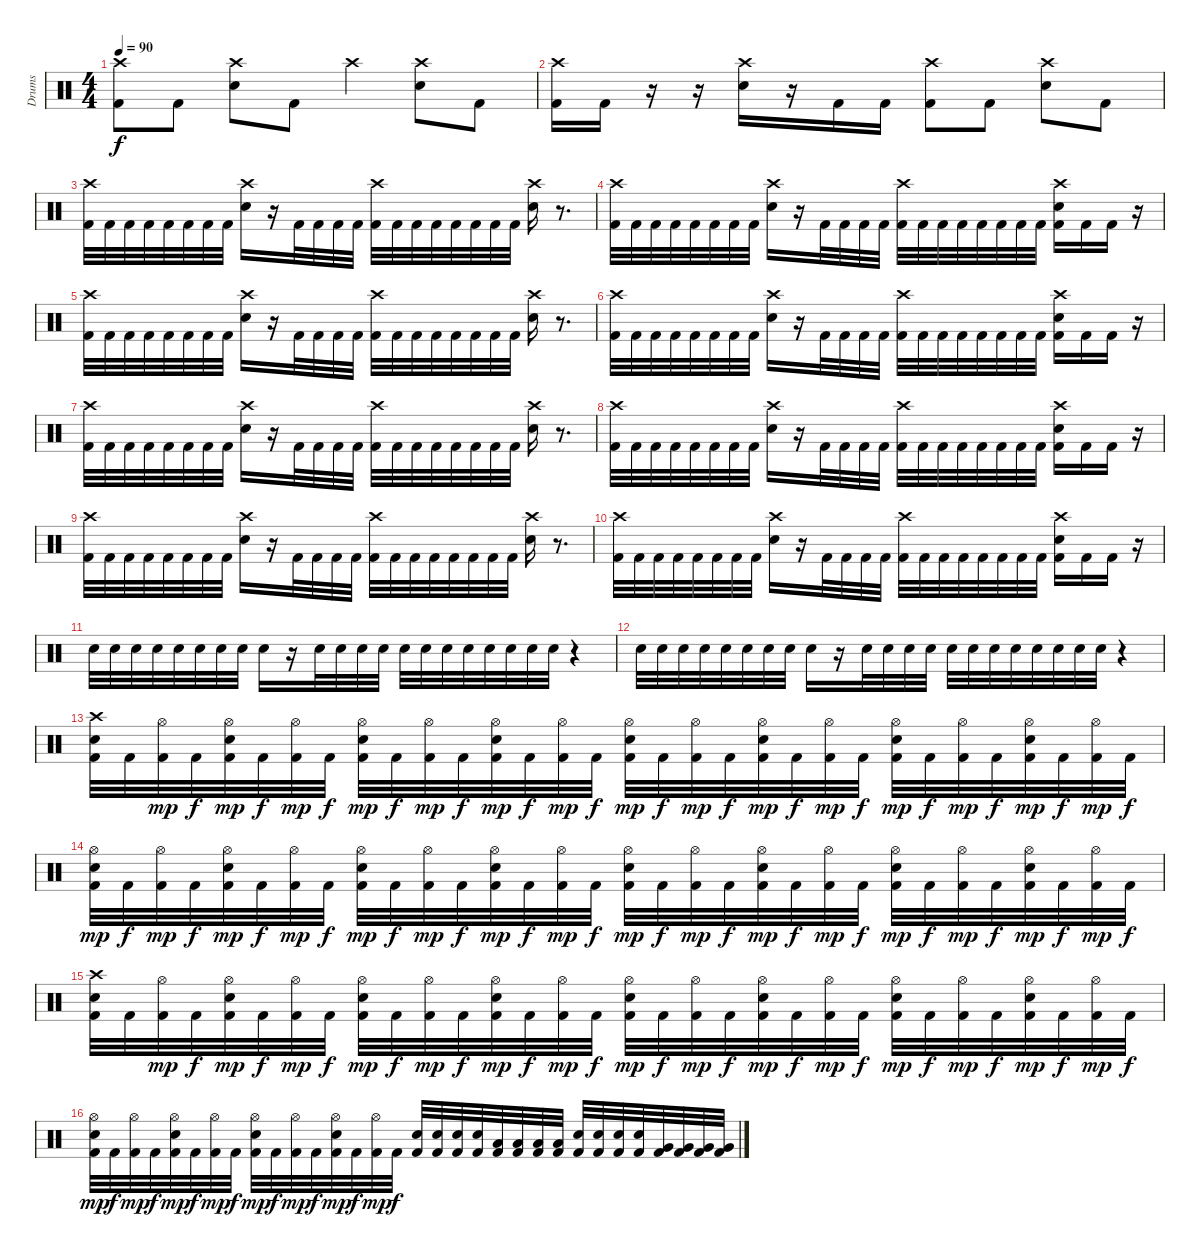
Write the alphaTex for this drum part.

\track ("Drums" "Drums") {instrument percussion}
\staff {score}
\articulation defaults
\ts (4 4)
\tempo 90
\clef neutral
\ks c
("Crash high (hit)" "Kick (hit) 2").8{dy f} "Kick (hit) 2".8 ("Crash high (hit)" "Electric Snare (hit)").8 "Kick (hit) 2".8 "Crash high (hit)".4 ("Crash high (hit)" "Electric Snare (hit)").8 "Kick (hit) 2".8 |
("Crash high (hit)" "Kick (hit) 2").16 "Kick (hit) 2".16 r.16 r.16 ("Crash high (hit)" "Electric Snare (hit)").16 r.16 "Kick (hit) 2".16 "Kick (hit) 2".16 ("Crash high (hit)" "Kick (hit) 2").8 "Kick (hit) 2".8 ("Crash high (hit)" "Electric Snare (hit)").8 "Kick (hit) 2".8 |
("Crash high (hit)" "Kick (hit) 2").32 "Kick (hit) 2".32 "Kick (hit) 2".32 "Kick (hit) 2".32 "Kick (hit) 2".32 "Kick (hit) 2".32 "Kick (hit) 2".32 "Kick (hit) 2".32 ("Crash high (hit)" "Electric Snare (hit)").16 r.16 "Kick (hit) 2".32 "Kick (hit) 2".32 "Kick (hit) 2".32 "Kick (hit) 2".32 ("Crash high (hit)" "Kick (hit) 2").32 "Kick (hit) 2".32 "Kick (hit) 2".32 "Kick (hit) 2".32 "Kick (hit) 2".32 "Kick (hit) 2".32 "Kick (hit) 2".32 "Kick (hit) 2".32 ("Crash high (hit)" "Electric Snare (hit)").16 r.8{d} |
("Crash high (hit)" "Kick (hit) 2").32 "Kick (hit) 2".32 "Kick (hit) 2".32 "Kick (hit) 2".32 "Kick (hit) 2".32 "Kick (hit) 2".32 "Kick (hit) 2".32 "Kick (hit) 2".32 ("Crash high (hit)" "Electric Snare (hit)").16 r.16 "Kick (hit) 2".32 "Kick (hit) 2".32 "Kick (hit) 2".32 "Kick (hit) 2".32 ("Crash high (hit)" "Kick (hit) 2").32 "Kick (hit) 2".32 "Kick (hit) 2".32 "Kick (hit) 2".32 "Kick (hit) 2".32 "Kick (hit) 2".32 "Kick (hit) 2".32 "Kick (hit) 2".32 ("Crash high (hit)" "Electric Snare (hit)" "Kick (hit) 2").16 "Kick (hit) 2".16 "Kick (hit) 2".16 r.16 |
("Crash high (hit)" "Kick (hit) 2").32 "Kick (hit) 2".32 "Kick (hit) 2".32 "Kick (hit) 2".32 "Kick (hit) 2".32 "Kick (hit) 2".32 "Kick (hit) 2".32 "Kick (hit) 2".32 ("Crash high (hit)" "Electric Snare (hit)").16 r.16 "Kick (hit) 2".32 "Kick (hit) 2".32 "Kick (hit) 2".32 "Kick (hit) 2".32 ("Crash high (hit)" "Kick (hit) 2").32 "Kick (hit) 2".32 "Kick (hit) 2".32 "Kick (hit) 2".32 "Kick (hit) 2".32 "Kick (hit) 2".32 "Kick (hit) 2".32 "Kick (hit) 2".32 ("Crash high (hit)" "Electric Snare (hit)").16 r.8{d} |
("Crash high (hit)" "Kick (hit) 2").32 "Kick (hit) 2".32 "Kick (hit) 2".32 "Kick (hit) 2".32 "Kick (hit) 2".32 "Kick (hit) 2".32 "Kick (hit) 2".32 "Kick (hit) 2".32 ("Crash high (hit)" "Electric Snare (hit)").16 r.16 "Kick (hit) 2".32 "Kick (hit) 2".32 "Kick (hit) 2".32 "Kick (hit) 2".32 ("Crash high (hit)" "Kick (hit) 2").32 "Kick (hit) 2".32 "Kick (hit) 2".32 "Kick (hit) 2".32 "Kick (hit) 2".32 "Kick (hit) 2".32 "Kick (hit) 2".32 "Kick (hit) 2".32 ("Crash high (hit)" "Electric Snare (hit)" "Kick (hit) 2").16 "Kick (hit) 2".16 "Kick (hit) 2".16 r.16 |
("Crash high (hit)" "Kick (hit) 2").32 "Kick (hit) 2".32 "Kick (hit) 2".32 "Kick (hit) 2".32 "Kick (hit) 2".32 "Kick (hit) 2".32 "Kick (hit) 2".32 "Kick (hit) 2".32 ("Crash high (hit)" "Electric Snare (hit)").16 r.16 "Kick (hit) 2".32 "Kick (hit) 2".32 "Kick (hit) 2".32 "Kick (hit) 2".32 ("Crash high (hit)" "Kick (hit) 2").32 "Kick (hit) 2".32 "Kick (hit) 2".32 "Kick (hit) 2".32 "Kick (hit) 2".32 "Kick (hit) 2".32 "Kick (hit) 2".32 "Kick (hit) 2".32 ("Crash high (hit)" "Electric Snare (hit)").16 r.8{d} |
("Crash high (hit)" "Kick (hit) 2").32 "Kick (hit) 2".32 "Kick (hit) 2".32 "Kick (hit) 2".32 "Kick (hit) 2".32 "Kick (hit) 2".32 "Kick (hit) 2".32 "Kick (hit) 2".32 ("Crash high (hit)" "Electric Snare (hit)").16 r.16 "Kick (hit) 2".32 "Kick (hit) 2".32 "Kick (hit) 2".32 "Kick (hit) 2".32 ("Crash high (hit)" "Kick (hit) 2").32 "Kick (hit) 2".32 "Kick (hit) 2".32 "Kick (hit) 2".32 "Kick (hit) 2".32 "Kick (hit) 2".32 "Kick (hit) 2".32 "Kick (hit) 2".32 ("Crash high (hit)" "Electric Snare (hit)" "Kick (hit) 2").16 "Kick (hit) 2".16 "Kick (hit) 2".16 r.16 |
("Crash high (hit)" "Kick (hit) 2").32 "Kick (hit) 2".32 "Kick (hit) 2".32 "Kick (hit) 2".32 "Kick (hit) 2".32 "Kick (hit) 2".32 "Kick (hit) 2".32 "Kick (hit) 2".32 ("Crash high (hit)" "Electric Snare (hit)").16 r.16 "Kick (hit) 2".32 "Kick (hit) 2".32 "Kick (hit) 2".32 "Kick (hit) 2".32 ("Crash high (hit)" "Kick (hit) 2").32 "Kick (hit) 2".32 "Kick (hit) 2".32 "Kick (hit) 2".32 "Kick (hit) 2".32 "Kick (hit) 2".32 "Kick (hit) 2".32 "Kick (hit) 2".32 ("Crash high (hit)" "Electric Snare (hit)").16 r.8{d} |
("Crash high (hit)" "Kick (hit) 2").32 "Kick (hit) 2".32 "Kick (hit) 2".32 "Kick (hit) 2".32 "Kick (hit) 2".32 "Kick (hit) 2".32 "Kick (hit) 2".32 "Kick (hit) 2".32 ("Crash high (hit)" "Electric Snare (hit)").16 r.16 "Kick (hit) 2".32 "Kick (hit) 2".32 "Kick (hit) 2".32 "Kick (hit) 2".32 ("Crash high (hit)" "Kick (hit) 2").32 "Kick (hit) 2".32 "Kick (hit) 2".32 "Kick (hit) 2".32 "Kick (hit) 2".32 "Kick (hit) 2".32 "Kick (hit) 2".32 "Kick (hit) 2".32 ("Crash high (hit)" "Electric Snare (hit)" "Kick (hit) 2").16 "Kick (hit) 2".16 "Kick (hit) 2".16 r.16 |
"Electric Snare (hit)".32 "Electric Snare (hit)".32 "Electric Snare (hit)".32 "Electric Snare (hit)".32 "Electric Snare (hit)".32 "Electric Snare (hit)".32 "Electric Snare (hit)".32 "Electric Snare (hit)".32 "Electric Snare (hit)".16 r.16 "Electric Snare (hit)".32 "Electric Snare (hit)".32 "Electric Snare (hit)".32 "Electric Snare (hit)".32 "Electric Snare (hit)".32 "Electric Snare (hit)".32 "Electric Snare (hit)".32 "Electric Snare (hit)".32 "Electric Snare (hit)".32 "Electric Snare (hit)".32 "Electric Snare (hit)".32 "Electric Snare (hit)".32 r.4 |
"Electric Snare (hit)".32 "Electric Snare (hit)".32 "Electric Snare (hit)".32 "Electric Snare (hit)".32 "Electric Snare (hit)".32 "Electric Snare (hit)".32 "Electric Snare (hit)".32 "Electric Snare (hit)".32 "Electric Snare (hit)".16 r.16 "Electric Snare (hit)".32 "Electric Snare (hit)".32 "Electric Snare (hit)".32 "Electric Snare (hit)".32 "Electric Snare (hit)".32 "Electric Snare (hit)".32 "Electric Snare (hit)".32 "Electric Snare (hit)".32 "Electric Snare (hit)".32 "Electric Snare (hit)".32 "Electric Snare (hit)".32 "Electric Snare (hit)".32 r.4 |
("Crash high (hit)" "Electric Snare (hit)" "Kick (hit) 2").32 "Kick (hit) 2".32 ("Hi-Hat (open)" "Kick (hit) 2").32{dy mp} "Kick (hit) 2".32{dy f} ("Hi-Hat (open)" "Electric Snare (hit)" "Kick (hit) 2").32{dy mp} "Kick (hit) 2".32{dy f} ("Hi-Hat (open)" "Kick (hit) 2").32{dy mp} "Kick (hit) 2".32{dy f} ("Hi-Hat (open)" "Electric Snare (hit)" "Kick (hit) 2").32{dy mp} "Kick (hit) 2".32{dy f} ("Hi-Hat (open)" "Kick (hit) 2").32{dy mp} "Kick (hit) 2".32{dy f} ("Hi-Hat (open)" "Electric Snare (hit)" "Kick (hit) 2").32{dy mp} "Kick (hit) 2".32{dy f} ("Hi-Hat (open)" "Kick (hit) 2").32{dy mp} "Kick (hit) 2".32{dy f} ("Hi-Hat (open)" "Electric Snare (hit)" "Kick (hit) 2").32{dy mp} "Kick (hit) 2".32{dy f} ("Hi-Hat (open)" "Kick (hit) 2").32{dy mp} "Kick (hit) 2".32{dy f} ("Hi-Hat (open)" "Electric Snare (hit)" "Kick (hit) 2").32{dy mp} "Kick (hit) 2".32{dy f} ("Hi-Hat (open)" "Kick (hit) 2").32{dy mp} "Kick (hit) 2".32{dy f} ("Hi-Hat (open)" "Electric Snare (hit)" "Kick (hit) 2").32{dy mp} "Kick (hit) 2".32{dy f} ("Hi-Hat (open)" "Kick (hit) 2").32{dy mp} "Kick (hit) 2".32{dy f} ("Hi-Hat (open)" "Electric Snare (hit)" "Kick (hit) 2").32{dy mp} "Kick (hit) 2".32{dy f} ("Hi-Hat (open)" "Kick (hit) 2").32{dy mp} "Kick (hit) 2".32{dy f} |
("Hi-Hat (open)" "Electric Snare (hit)" "Kick (hit) 2").32{dy mp} "Kick (hit) 2".32{dy f} ("Hi-Hat (open)" "Kick (hit) 2").32{dy mp} "Kick (hit) 2".32{dy f} ("Hi-Hat (open)" "Electric Snare (hit)" "Kick (hit) 2").32{dy mp} "Kick (hit) 2".32{dy f} ("Hi-Hat (open)" "Kick (hit) 2").32{dy mp} "Kick (hit) 2".32{dy f} ("Hi-Hat (open)" "Electric Snare (hit)" "Kick (hit) 2").32{dy mp} "Kick (hit) 2".32{dy f} ("Hi-Hat (open)" "Kick (hit) 2").32{dy mp} "Kick (hit) 2".32{dy f} ("Hi-Hat (open)" "Electric Snare (hit)" "Kick (hit) 2").32{dy mp} "Kick (hit) 2".32{dy f} ("Hi-Hat (open)" "Kick (hit) 2").32{dy mp} "Kick (hit) 2".32{dy f} ("Hi-Hat (open)" "Electric Snare (hit)" "Kick (hit) 2").32{dy mp} "Kick (hit) 2".32{dy f} ("Hi-Hat (open)" "Kick (hit) 2").32{dy mp} "Kick (hit) 2".32{dy f} ("Hi-Hat (open)" "Electric Snare (hit)" "Kick (hit) 2").32{dy mp} "Kick (hit) 2".32{dy f} ("Hi-Hat (open)" "Kick (hit) 2").32{dy mp} "Kick (hit) 2".32{dy f} ("Hi-Hat (open)" "Electric Snare (hit)" "Kick (hit) 2").32{dy mp} "Kick (hit) 2".32{dy f} ("Hi-Hat (open)" "Kick (hit) 2").32{dy mp} "Kick (hit) 2".32{dy f} ("Hi-Hat (open)" "Electric Snare (hit)" "Kick (hit) 2").32{dy mp} "Kick (hit) 2".32{dy f} ("Hi-Hat (open)" "Kick (hit) 2").32{dy mp} "Kick (hit) 2".32{dy f} |
("Crash high (hit)" "Electric Snare (hit)" "Kick (hit) 2").32 "Kick (hit) 2".32 ("Hi-Hat (open)" "Kick (hit) 2").32{dy mp} "Kick (hit) 2".32{dy f} ("Hi-Hat (open)" "Electric Snare (hit)" "Kick (hit) 2").32{dy mp} "Kick (hit) 2".32{dy f} ("Hi-Hat (open)" "Kick (hit) 2").32{dy mp} "Kick (hit) 2".32{dy f} ("Hi-Hat (open)" "Electric Snare (hit)" "Kick (hit) 2").32{dy mp} "Kick (hit) 2".32{dy f} ("Hi-Hat (open)" "Kick (hit) 2").32{dy mp} "Kick (hit) 2".32{dy f} ("Hi-Hat (open)" "Electric Snare (hit)" "Kick (hit) 2").32{dy mp} "Kick (hit) 2".32{dy f} ("Hi-Hat (open)" "Kick (hit) 2").32{dy mp} "Kick (hit) 2".32{dy f} ("Hi-Hat (open)" "Electric Snare (hit)" "Kick (hit) 2").32{dy mp} "Kick (hit) 2".32{dy f} ("Hi-Hat (open)" "Kick (hit) 2").32{dy mp} "Kick (hit) 2".32{dy f} ("Hi-Hat (open)" "Electric Snare (hit)" "Kick (hit) 2").32{dy mp} "Kick (hit) 2".32{dy f} ("Hi-Hat (open)" "Kick (hit) 2").32{dy mp} "Kick (hit) 2".32{dy f} ("Hi-Hat (open)" "Electric Snare (hit)" "Kick (hit) 2").32{dy mp} "Kick (hit) 2".32{dy f} ("Hi-Hat (open)" "Kick (hit) 2").32{dy mp} "Kick (hit) 2".32{dy f} ("Hi-Hat (open)" "Electric Snare (hit)" "Kick (hit) 2").32{dy mp} "Kick (hit) 2".32{dy f} ("Hi-Hat (open)" "Kick (hit) 2").32{dy mp} "Kick (hit) 2".32{dy f} |
("Hi-Hat (open)" "Electric Snare (hit)" "Kick (hit) 2").32{dy mp} "Kick (hit) 2".32{dy f} ("Hi-Hat (open)" "Kick (hit) 2").32{dy mp} "Kick (hit) 2".32{dy f} ("Hi-Hat (open)" "Electric Snare (hit)" "Kick (hit) 2").32{dy mp} "Kick (hit) 2".32{dy f} ("Hi-Hat (open)" "Kick (hit) 2").32{dy mp} "Kick (hit) 2".32{dy f} ("Hi-Hat (open)" "Electric Snare (hit)" "Kick (hit) 2").32{dy mp} "Kick (hit) 2".32{dy f} ("Hi-Hat (open)" "Kick (hit) 2").32{dy mp} "Kick (hit) 2".32{dy f} ("Hi-Hat (open)" "Electric Snare (hit)" "Kick (hit) 2").32{dy mp} "Kick (hit) 2".32{dy f} ("Hi-Hat (open)" "Kick (hit) 2").32{dy mp} "Kick (hit) 2".32{dy f} ("Electric Snare (hit)" "Kick (hit) 2").32 ("Electric Snare (hit)" "Kick (hit) 2").32 ("Electric Snare (hit)" "Kick (hit) 2").32 ("Electric Snare (hit)" "Kick (hit) 2").32 ("Low Tom (hit)" "Kick (hit) 2").32 ("Low Tom (hit)" "Kick (hit) 2").32 ("Low Tom (hit)" "Kick (hit) 2").32 ("Low Tom (hit)" "Kick (hit) 2").32 ("Electric Snare (hit)" "Kick (hit) 2").32 ("Electric Snare (hit)" "Kick (hit) 2").32 ("Electric Snare (hit)" "Kick (hit) 2").32 ("Electric Snare (hit)" "Kick (hit) 2").32 ("Very Low Tom (hit)" "Kick (hit) 2").32 ("Very Low Tom (hit)" "Kick (hit) 2").32 ("Very Low Tom (hit)" "Kick (hit) 2").32 ("Very Low Tom (hit)" "Kick (hit) 2").32
